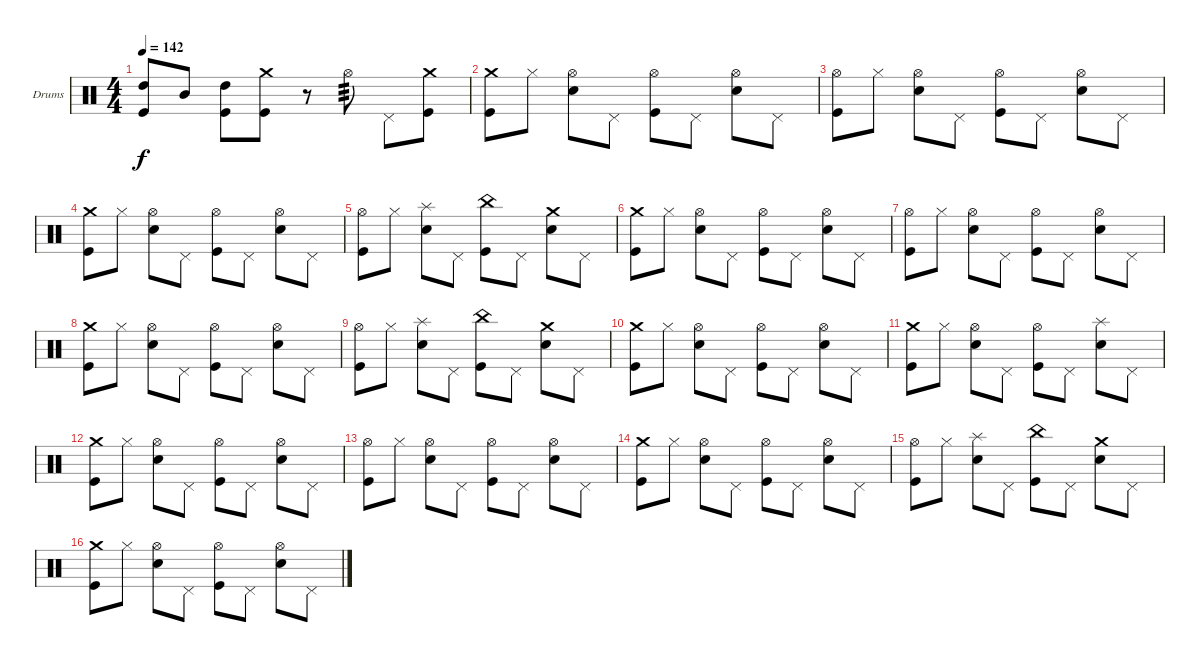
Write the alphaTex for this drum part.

\bracketExtendMode groupsimilarinstruments
\firstSystemTrackNameOrientation horizontal
\otherSystemsTrackNameOrientation horizontal
\track ("Drumkit" "Drums") {solo instrument percussion}
\staff {score}
\articulation defaults
\ts (4 4)
\tempo 142
\clef neutral
\ks c
("High Tom (hit)" "Kick (hit)").8{dy f} "Mid Tom (hit)".8 ("High Tom (hit)" "Kick (hit)").8 ("Kick (hit)" "Crash medium (hit)").8 r.8 "Hi-Hat (open)".8{tp 3} "Pedal Hi-Hat (hit)".8 ("Crash medium (hit)" "Kick (hit)").8 |
("Crash medium (hit)" "Kick (hit)").8 "Hi-Hat (closed)".8 ("Hi-Hat (open)" "Snare (hit) 2").8 "Pedal Hi-Hat (hit)".8 ("Hi-Hat (open)" "Kick (hit)").8 "Pedal Hi-Hat (hit)".8 ("Hi-Hat (open)" "Snare (hit) 2").8 "Pedal Hi-Hat (hit)".8 |
("Hi-Hat (open)" "Kick (hit)").8 "Hi-Hat (closed)".8 ("Hi-Hat (open)" "Snare (hit) 2").8 "Pedal Hi-Hat (hit)".8 ("Hi-Hat (open)" "Kick (hit)").8 "Pedal Hi-Hat (hit)".8 ("Hi-Hat (open)" "Snare (hit) 2").8 "Pedal Hi-Hat (hit)".8 |
("Crash medium (hit)" "Kick (hit)").8 "Hi-Hat (closed)".8 ("Hi-Hat (open)" "Snare (hit) 2").8 "Pedal Hi-Hat (hit)".8 ("Hi-Hat (open)" "Kick (hit)").8 "Pedal Hi-Hat (hit)".8 ("Hi-Hat (open)" "Snare (hit) 2").8 "Pedal Hi-Hat (hit)".8 |
("Hi-Hat (open)" "Kick (hit)").8 "Hi-Hat (closed)".8 ("Splash (hit)" "Snare (hit) 2").8 "Pedal Hi-Hat (hit)".8 ("China (hit)" "Kick (hit)").8 "Pedal Hi-Hat (hit)".8 ("Crash medium (hit)" "Snare (hit) 2").8 "Pedal Hi-Hat (hit)".8 |
("Crash medium (hit)" "Kick (hit)").8 "Hi-Hat (closed)".8 ("Hi-Hat (open)" "Snare (hit) 2").8 "Pedal Hi-Hat (hit)".8 ("Hi-Hat (open)" "Kick (hit)").8 "Pedal Hi-Hat (hit)".8 ("Hi-Hat (open)" "Snare (hit) 2").8 "Pedal Hi-Hat (hit)".8 |
("Hi-Hat (open)" "Kick (hit)").8 "Hi-Hat (closed)".8 ("Hi-Hat (open)" "Snare (hit) 2").8 "Pedal Hi-Hat (hit)".8 ("Hi-Hat (open)" "Kick (hit)").8 "Pedal Hi-Hat (hit)".8 ("Hi-Hat (open)" "Snare (hit) 2").8 "Pedal Hi-Hat (hit)".8 |
("Crash medium (hit)" "Kick (hit)").8 "Hi-Hat (closed)".8 ("Hi-Hat (open)" "Snare (hit) 2").8 "Pedal Hi-Hat (hit)".8 ("Hi-Hat (open)" "Kick (hit)").8 "Pedal Hi-Hat (hit)".8 ("Hi-Hat (open)" "Snare (hit) 2").8 "Pedal Hi-Hat (hit)".8 |
("Hi-Hat (open)" "Kick (hit)").8 "Hi-Hat (closed)".8 ("Splash (hit)" "Snare (hit) 2").8 "Pedal Hi-Hat (hit)".8 ("China (hit)" "Kick (hit)").8 "Pedal Hi-Hat (hit)".8 ("Crash medium (hit)" "Snare (hit) 2").8 "Pedal Hi-Hat (hit)".8 |
("Crash medium (hit)" "Kick (hit)").8 "Hi-Hat (closed)".8 ("Hi-Hat (open)" "Snare (hit) 2").8 "Pedal Hi-Hat (hit)".8 ("Hi-Hat (open)" "Kick (hit)").8 "Pedal Hi-Hat (hit)".8 ("Hi-Hat (open)" "Snare (hit) 2").8 "Pedal Hi-Hat (hit)".8 |
("Crash medium (hit)" "Kick (hit)").8 "Hi-Hat (closed)".8 ("Hi-Hat (open)" "Snare (hit) 2").8 "Pedal Hi-Hat (hit)".8 ("Hi-Hat (open)" "Kick (hit)").8 "Pedal Hi-Hat (hit)".8 ("Splash (hit)" "Snare (hit) 2").8 "Pedal Hi-Hat (hit)".8 |
("Crash medium (hit)" "Kick (hit)").8 "Hi-Hat (closed)".8 ("Hi-Hat (open)" "Snare (hit) 2").8 "Pedal Hi-Hat (hit)".8 ("Hi-Hat (open)" "Kick (hit)").8 "Pedal Hi-Hat (hit)".8 ("Hi-Hat (open)" "Snare (hit) 2").8 "Pedal Hi-Hat (hit)".8 |
("Hi-Hat (open)" "Kick (hit)").8 "Hi-Hat (closed)".8 ("Hi-Hat (open)" "Snare (hit) 2").8 "Pedal Hi-Hat (hit)".8 ("Hi-Hat (open)" "Kick (hit)").8 "Pedal Hi-Hat (hit)".8 ("Hi-Hat (open)" "Snare (hit) 2").8 "Pedal Hi-Hat (hit)".8 |
("Crash medium (hit)" "Kick (hit)").8 "Hi-Hat (closed)".8 ("Hi-Hat (open)" "Snare (hit) 2").8 "Pedal Hi-Hat (hit)".8 ("Hi-Hat (open)" "Kick (hit)").8 "Pedal Hi-Hat (hit)".8 ("Hi-Hat (open)" "Snare (hit) 2").8 "Pedal Hi-Hat (hit)".8 |
("Hi-Hat (open)" "Kick (hit)").8 "Hi-Hat (closed)".8 ("Splash (hit)" "Snare (hit) 2").8 "Pedal Hi-Hat (hit)".8 ("China (hit)" "Kick (hit)").8 "Pedal Hi-Hat (hit)".8 ("Crash medium (hit)" "Snare (hit) 2").8 "Pedal Hi-Hat (hit)".8 |
("Crash medium (hit)" "Kick (hit)").8 "Hi-Hat (closed)".8 ("Hi-Hat (open)" "Snare (hit) 2").8 "Pedal Hi-Hat (hit)".8 ("Hi-Hat (open)" "Kick (hit)").8 "Pedal Hi-Hat (hit)".8 ("Hi-Hat (open)" "Snare (hit) 2").8 "Pedal Hi-Hat (hit)".8
